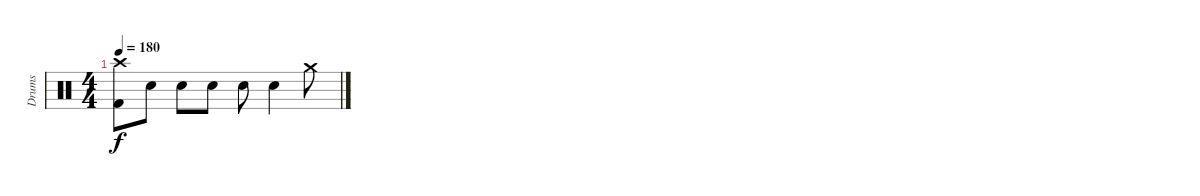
\track ("Drums" "Drums") {instrument percussion}
\staff {score}
\articulation defaults
\ts (4 4)
\tempo 180
\clef neutral
\ks c
("Crash high (hit)" "Kick (hit) 2").8{dy f} "Snare (hit) 2".8 "Snare (hit) 2".8 "Snare (hit) 2".8 "Snare (hit) 2".8 "Snare (hit) 2".4 "Crash medium (hit)".8
